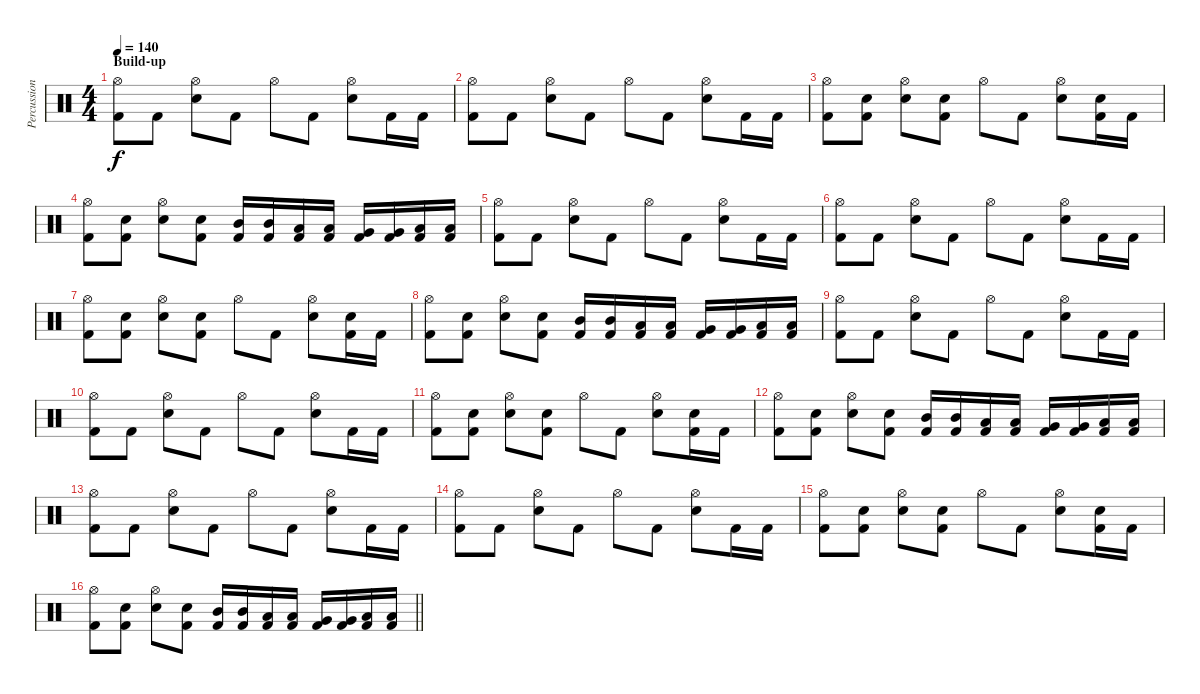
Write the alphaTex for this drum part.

\track ("Percussion" "Percussion") {instrument percussion}
\staff {score}
\articulation defaults
\ts (4 4)
\section ("" "Build-up")
\tempo 140
\clef neutral
\ks c
("Hi-Hat (open)" "Kick (hit) 2").8{dy f} "Kick (hit) 2".8 ("Hi-Hat (open)" "Electric Snare (hit)").8 "Kick (hit) 2".8 "Hi-Hat (open)".8 "Kick (hit) 2".8 ("Hi-Hat (open)" "Electric Snare (hit)").8 "Kick (hit) 2".16 "Kick (hit) 2".16 |
("Hi-Hat (open)" "Kick (hit) 2").8 "Kick (hit) 2".8 ("Hi-Hat (open)" "Electric Snare (hit)").8 "Kick (hit) 2".8 "Hi-Hat (open)".8 "Kick (hit) 2".8 ("Hi-Hat (open)" "Electric Snare (hit)").8 "Kick (hit) 2".16 "Kick (hit) 2".16 |
("Hi-Hat (open)" "Kick (hit) 2").8 ("Electric Snare (hit)" "Kick (hit) 2").8 ("Hi-Hat (open)" "Electric Snare (hit)").8 ("Electric Snare (hit)" "Kick (hit) 2").8 "Hi-Hat (open)".8 "Kick (hit) 2".8 ("Hi-Hat (open)" "Electric Snare (hit)").8 ("Electric Snare (hit)" "Kick (hit) 2").16 "Kick (hit) 2".16 |
("Hi-Hat (open)" "Kick (hit) 2").8 ("Electric Snare (hit)" "Kick (hit) 2").8 ("Hi-Hat (open)" "Electric Snare (hit)").8 ("Electric Snare (hit)" "Kick (hit) 2").8 ("Mid Tom (hit)" "Kick (hit) 2").16 ("Mid Tom (hit)" "Kick (hit) 2").16 ("Low Tom (hit)" "Kick (hit) 2").16 ("Low Tom (hit)" "Kick (hit) 2").16 ("Very Low Tom (hit)" "Kick (hit) 2").16 ("Very Low Tom (hit)" "Kick (hit) 2").16 ("Low Floor Tom (hit)" "Kick (hit) 2").16 ("Low Floor Tom (hit)" "Kick (hit) 2").16 |
("Hi-Hat (open)" "Kick (hit) 2").8 "Kick (hit) 2".8 ("Hi-Hat (open)" "Electric Snare (hit)").8 "Kick (hit) 2".8 "Hi-Hat (open)".8 "Kick (hit) 2".8 ("Hi-Hat (open)" "Electric Snare (hit)").8 "Kick (hit) 2".16 "Kick (hit) 2".16 |
("Hi-Hat (open)" "Kick (hit) 2").8 "Kick (hit) 2".8 ("Hi-Hat (open)" "Electric Snare (hit)").8 "Kick (hit) 2".8 "Hi-Hat (open)".8 "Kick (hit) 2".8 ("Hi-Hat (open)" "Electric Snare (hit)").8 "Kick (hit) 2".16 "Kick (hit) 2".16 |
("Hi-Hat (open)" "Kick (hit) 2").8 ("Electric Snare (hit)" "Kick (hit) 2").8 ("Hi-Hat (open)" "Electric Snare (hit)").8 ("Electric Snare (hit)" "Kick (hit) 2").8 "Hi-Hat (open)".8 "Kick (hit) 2".8 ("Hi-Hat (open)" "Electric Snare (hit)").8 ("Electric Snare (hit)" "Kick (hit) 2").16 "Kick (hit) 2".16 |
("Hi-Hat (open)" "Kick (hit) 2").8 ("Electric Snare (hit)" "Kick (hit) 2").8 ("Hi-Hat (open)" "Electric Snare (hit)").8 ("Electric Snare (hit)" "Kick (hit) 2").8 ("Mid Tom (hit)" "Kick (hit) 2").16 ("Mid Tom (hit)" "Kick (hit) 2").16 ("Low Tom (hit)" "Kick (hit) 2").16 ("Low Tom (hit)" "Kick (hit) 2").16 ("Very Low Tom (hit)" "Kick (hit) 2").16 ("Very Low Tom (hit)" "Kick (hit) 2").16 ("Low Floor Tom (hit)" "Kick (hit) 2").16 ("Low Floor Tom (hit)" "Kick (hit) 2").16 |
("Hi-Hat (open)" "Kick (hit) 2").8 "Kick (hit) 2".8 ("Hi-Hat (open)" "Electric Snare (hit)").8 "Kick (hit) 2".8 "Hi-Hat (open)".8 "Kick (hit) 2".8 ("Hi-Hat (open)" "Electric Snare (hit)").8 "Kick (hit) 2".16 "Kick (hit) 2".16 |
("Hi-Hat (open)" "Kick (hit) 2").8 "Kick (hit) 2".8 ("Hi-Hat (open)" "Electric Snare (hit)").8 "Kick (hit) 2".8 "Hi-Hat (open)".8 "Kick (hit) 2".8 ("Hi-Hat (open)" "Electric Snare (hit)").8 "Kick (hit) 2".16 "Kick (hit) 2".16 |
("Hi-Hat (open)" "Kick (hit) 2").8 ("Electric Snare (hit)" "Kick (hit) 2").8 ("Hi-Hat (open)" "Electric Snare (hit)").8 ("Electric Snare (hit)" "Kick (hit) 2").8 "Hi-Hat (open)".8 "Kick (hit) 2".8 ("Hi-Hat (open)" "Electric Snare (hit)").8 ("Electric Snare (hit)" "Kick (hit) 2").16 "Kick (hit) 2".16 |
("Hi-Hat (open)" "Kick (hit) 2").8 ("Electric Snare (hit)" "Kick (hit) 2").8 ("Hi-Hat (open)" "Electric Snare (hit)").8 ("Electric Snare (hit)" "Kick (hit) 2").8 ("Mid Tom (hit)" "Kick (hit) 2").16 ("Mid Tom (hit)" "Kick (hit) 2").16 ("Low Tom (hit)" "Kick (hit) 2").16 ("Low Tom (hit)" "Kick (hit) 2").16 ("Very Low Tom (hit)" "Kick (hit) 2").16 ("Very Low Tom (hit)" "Kick (hit) 2").16 ("Low Floor Tom (hit)" "Kick (hit) 2").16 ("Low Floor Tom (hit)" "Kick (hit) 2").16 |
("Hi-Hat (open)" "Kick (hit) 2").8 "Kick (hit) 2".8 ("Hi-Hat (open)" "Electric Snare (hit)").8 "Kick (hit) 2".8 "Hi-Hat (open)".8 "Kick (hit) 2".8 ("Hi-Hat (open)" "Electric Snare (hit)").8 "Kick (hit) 2".16 "Kick (hit) 2".16 |
("Hi-Hat (open)" "Kick (hit) 2").8 "Kick (hit) 2".8 ("Hi-Hat (open)" "Electric Snare (hit)").8 "Kick (hit) 2".8 "Hi-Hat (open)".8 "Kick (hit) 2".8 ("Hi-Hat (open)" "Electric Snare (hit)").8 "Kick (hit) 2".16 "Kick (hit) 2".16 |
("Hi-Hat (open)" "Kick (hit) 2").8 ("Electric Snare (hit)" "Kick (hit) 2").8 ("Hi-Hat (open)" "Electric Snare (hit)").8 ("Electric Snare (hit)" "Kick (hit) 2").8 "Hi-Hat (open)".8 "Kick (hit) 2".8 ("Hi-Hat (open)" "Electric Snare (hit)").8 ("Electric Snare (hit)" "Kick (hit) 2").16 "Kick (hit) 2".16 |
\barLineRight lightlight
("Hi-Hat (open)" "Kick (hit) 2").8 ("Electric Snare (hit)" "Kick (hit) 2").8 ("Hi-Hat (open)" "Electric Snare (hit)").8 ("Electric Snare (hit)" "Kick (hit) 2").8 ("Mid Tom (hit)" "Kick (hit) 2").16 ("Mid Tom (hit)" "Kick (hit) 2").16 ("Low Tom (hit)" "Kick (hit) 2").16 ("Low Tom (hit)" "Kick (hit) 2").16 ("Very Low Tom (hit)" "Kick (hit) 2").16 ("Very Low Tom (hit)" "Kick (hit) 2").16 ("Low Floor Tom (hit)" "Kick (hit) 2").16 ("Low Floor Tom (hit)" "Kick (hit) 2").16
